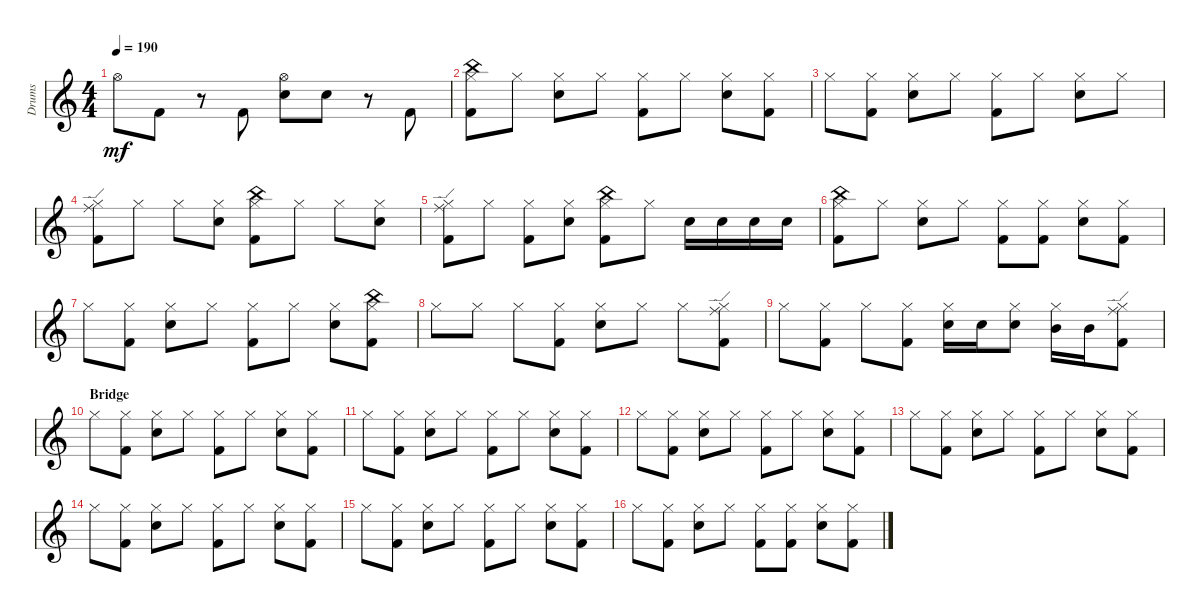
\defaultSystemsLayout 4
\bracketExtendMode groupsimilarinstruments
\otherSystemsTrackNameOrientation horizontal
\track ("Prakarsh" "Drums") {instrument percussion}
\staff {score}
\articulation defaults
\ts (4 4)
\tempo 190
\clef g2
\ks c "Hi-Hat (open)".8{dy mf beam Down} "Kick (hit) 2".8{beam Down}
r.8{beam Down} "Kick (hit) 2".8{beam Up} ("Hi-Hat (open)" "Snare (hit) 2").8{beam Down} "Snare (hit) 2".8{beam Down} r.8{beam Down} "Kick (hit) 2".8{beam Up} |
("Hi-Hat (closed)" "Kick (hit) 2" "China (hit)").8{beam Down} "Hi-Hat (closed)".8{beam Down} ("Hi-Hat (closed)" "Snare (hit) 2").8{beam Down} "Hi-Hat (closed)".8{beam Down} ("Hi-Hat (closed)" "Kick (hit) 2").8{beam Down} "Hi-Hat (closed)".8{beam Down} ("Hi-Hat (closed)" "Snare (hit) 2").8{beam Down} ("Hi-Hat (closed)" "Kick (hit) 2").8{beam Down} |
"Hi-Hat (closed)".8{beam Down} ("Hi-Hat (closed)" "Kick (hit) 2").8{beam Down} ("Hi-Hat (closed)" "Snare (hit) 2").8{beam Down} "Hi-Hat (closed)".8{beam Down} ("Hi-Hat (closed)" "Kick (hit) 2").8{beam Down} "Hi-Hat (closed)".8{beam Down} ("Hi-Hat (closed)" "Snare (hit) 2").8{beam Down} "Hi-Hat (closed)".8{beam Down} |
("Hi-Hat (closed)" "Kick (hit) 2" "Ride (edge)").8{beam Down} "Hi-Hat (closed)".8{beam Down} "Hi-Hat (closed)".8{beam Down} ("Hi-Hat (closed)" "Snare (hit) 2").8{beam Down} ("Hi-Hat (closed)" "Kick (hit) 2" "China (hit)").8{beam Down} "Hi-Hat (closed)".8{beam Down} "Hi-Hat (closed)".8{beam Down} ("Hi-Hat (closed)" "Snare (hit) 2").8{beam Down} |
("Hi-Hat (closed)" "Kick (hit) 2" "Ride (edge)").8{beam Down} "Hi-Hat (closed)".8{beam Down} ("Hi-Hat (closed)" "Kick (hit) 2").8{beam Down} ("Hi-Hat (closed)" "Snare (hit) 2").8{beam Down} ("Hi-Hat (closed)" "Kick (hit) 2" "China (hit)").8{beam Down} "Hi-Hat (closed)".8{beam Down} "Snare (hit) 2".16{beam Down} "Snare (hit) 2".16{beam Down} "Snare (hit) 2".16{beam Down} "Snare (hit) 2".16{beam Down} |
("Hi-Hat (closed)" "Kick (hit) 2" "China (hit)").8{beam Down} "Hi-Hat (closed)".8{beam Down} ("Hi-Hat (closed)" "Snare (hit) 2").8{beam Down} "Hi-Hat (closed)".8{beam Down} ("Hi-Hat (closed)" "Kick (hit) 2").8{beam Down} ("Hi-Hat (closed)" "Kick (hit) 2").8{beam Down} ("Hi-Hat (closed)" "Snare (hit) 2").8{beam Down} ("Hi-Hat (closed)" "Kick (hit) 2").8{beam Down} |
"Hi-Hat (closed)".8{beam Down} ("Hi-Hat (closed)" "Kick (hit) 2").8{beam Down} ("Hi-Hat (closed)" "Snare (hit) 2").8{beam Down} "Hi-Hat (closed)".8{beam Down} ("Hi-Hat (closed)" "Kick (hit) 2").8{beam Down} "Hi-Hat (closed)".8{beam Down} ("Hi-Hat (closed)" "Snare (hit) 2").8{beam Down} ("Hi-Hat (closed)" "Kick (hit) 2" "China (hit)").8{beam Down} |
"Hi-Hat (closed)".8{beam Down} "Hi-Hat (closed)".8{beam Down} "Hi-Hat (closed)".8{beam Down} ("Hi-Hat (closed)" "Kick (hit) 2").8{beam Down} ("Hi-Hat (closed)" "Snare (hit) 2").8{beam Down} "Hi-Hat (closed)".8{beam Down} "Hi-Hat (closed)".8{beam Down} ("Kick (hit) 2" "Hi-Hat (closed)" "Ride (edge)").8{beam Down} |
"Hi-Hat (closed)".8{beam Down} ("Hi-Hat (closed)" "Kick (hit) 2").8{beam Down} "Hi-Hat (closed)".8{beam Down} ("Hi-Hat (closed)" "Kick (hit) 2").8{beam Down} ("Hi-Hat (closed)" "Snare (hit) 2").16{beam Down} "Snare (hit) 2".16{beam Down} ("Hi-Hat (closed)" "Snare (hit) 2").8{beam Down} ("Hi-Hat (closed)" "Mid Tom (hit)").16{beam Down} "Mid Tom (hit)".16{beam Down} ("Kick (hit) 2" "Ride (edge)" "Hi-Hat (closed)").8{beam Down} |
\section ("" "Bridge")
"Hi-Hat (closed)".8{beam Down} ("Hi-Hat (closed)" "Kick (hit) 2").8{beam Down} ("Hi-Hat (closed)" "Snare (hit) 2").8{beam Down} "Hi-Hat (closed)".8{beam Down} ("Hi-Hat (closed)" "Kick (hit) 2").8{beam Down} "Hi-Hat (closed)".8{beam Down} ("Hi-Hat (closed)" "Snare (hit) 2").8{beam Down} ("Hi-Hat (closed)" "Kick (hit) 2").8{beam Down} |
"Hi-Hat (closed)".8{beam Down} ("Hi-Hat (closed)" "Kick (hit) 2").8{beam Down} ("Hi-Hat (closed)" "Snare (hit) 2").8{beam Down} "Hi-Hat (closed)".8{beam Down} ("Hi-Hat (closed)" "Kick (hit) 2").8{beam Down} "Hi-Hat (closed)".8{beam Down} ("Hi-Hat (closed)" "Snare (hit) 2").8{beam Down} ("Hi-Hat (closed)" "Kick (hit) 2").8{beam Down} |
"Hi-Hat (closed)".8{beam Down} ("Hi-Hat (closed)" "Kick (hit) 2").8{beam Down} ("Hi-Hat (closed)" "Snare (hit) 2").8{beam Down} "Hi-Hat (closed)".8{beam Down} ("Hi-Hat (closed)" "Kick (hit) 2").8{beam Down} "Hi-Hat (closed)".8{beam Down} ("Hi-Hat (closed)" "Snare (hit) 2").8{beam Down} ("Hi-Hat (closed)" "Kick (hit) 2").8{beam Down} |
"Hi-Hat (closed)".8{beam Down} ("Hi-Hat (closed)" "Kick (hit) 2").8{beam Down} ("Hi-Hat (closed)" "Snare (hit) 2").8{beam Down} "Hi-Hat (closed)".8{beam Down} ("Hi-Hat (closed)" "Kick (hit) 2").8{beam Down} "Hi-Hat (closed)".8{beam Down} ("Hi-Hat (closed)" "Snare (hit) 2").8{beam Down} ("Hi-Hat (closed)" "Kick (hit) 2").8{beam Down} |
"Hi-Hat (closed)".8{beam Down} ("Hi-Hat (closed)" "Kick (hit) 2").8{beam Down} ("Hi-Hat (closed)" "Snare (hit) 2").8{beam Down} "Hi-Hat (closed)".8{beam Down} ("Hi-Hat (closed)" "Kick (hit) 2").8{beam Down} "Hi-Hat (closed)".8{beam Down} ("Hi-Hat (closed)" "Snare (hit) 2").8{beam Down} ("Hi-Hat (closed)" "Kick (hit) 2").8{beam Down} |
"Hi-Hat (closed)".8{beam Down} ("Hi-Hat (closed)" "Kick (hit) 2").8{beam Down} ("Hi-Hat (closed)" "Snare (hit) 2").8{beam Down} "Hi-Hat (closed)".8{beam Down} ("Hi-Hat (closed)" "Kick (hit) 2").8{beam Down} "Hi-Hat (closed)".8{beam Down} ("Hi-Hat (closed)" "Snare (hit) 2").8{beam Down} ("Hi-Hat (closed)" "Kick (hit) 2").8{beam Down} |
"Hi-Hat (closed)".8{beam Down} ("Hi-Hat (closed)" "Kick (hit) 2").8{beam Down} ("Hi-Hat (closed)" "Snare (hit) 2").8{beam Down} "Hi-Hat (closed)".8{beam Down} ("Hi-Hat (closed)" "Kick (hit) 2").8{beam Down} ("Hi-Hat (closed)" "Kick (hit) 2").8{beam Down} ("Hi-Hat (closed)" "Snare (hit) 2").8{beam Down} ("Hi-Hat (closed)" "Kick (hit) 2").8{beam Down}
